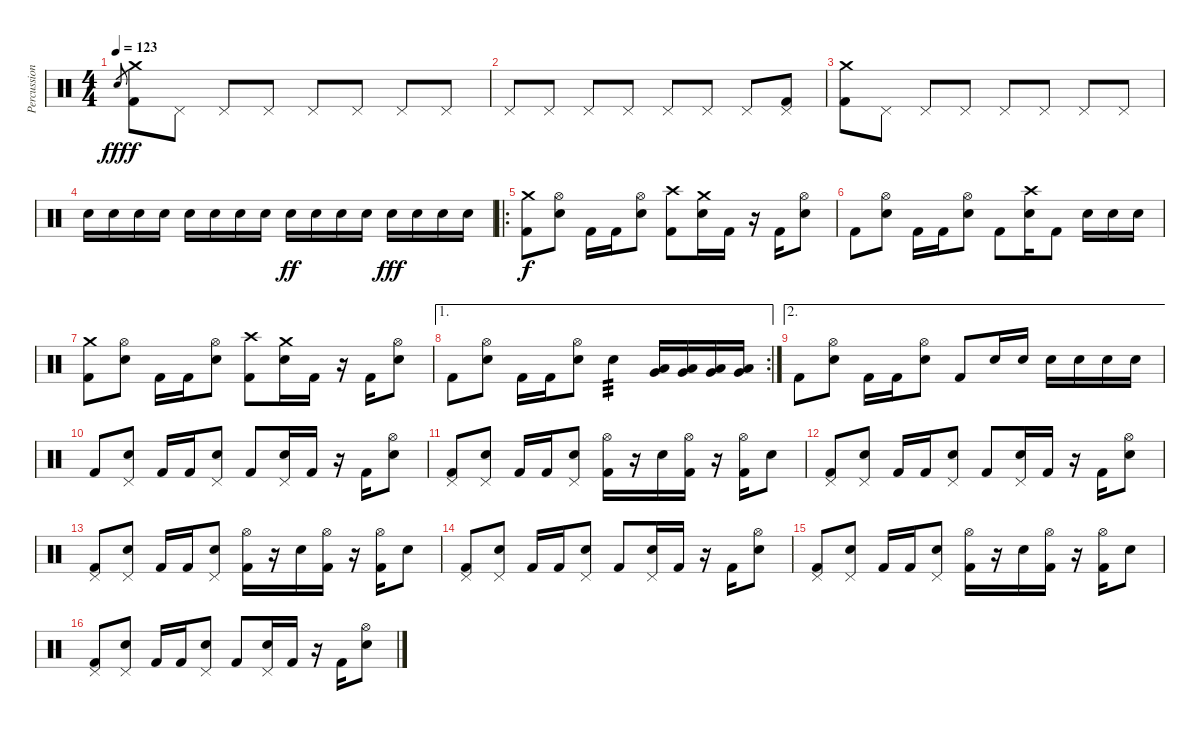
\track ("Percussion" "Percussion") {instrument percussion}
\staff {score}
\articulation defaults
\ts (4 4)
\tempo 123
\clef neutral
\ks c "Electric Snare (hit)".8{gr dy fff}
("Crash medium (hit)" "Kick (hit) 2").8{dy f} "Pedal Hi-Hat (hit)".8 "Pedal Hi-Hat (hit)".8 "Pedal Hi-Hat (hit)".8 "Pedal Hi-Hat (hit)".8 "Pedal Hi-Hat (hit)".8 "Pedal Hi-Hat (hit)".8 "Pedal Hi-Hat (hit)".8 |
"Pedal Hi-Hat (hit)".8 "Pedal Hi-Hat (hit)".8 "Pedal Hi-Hat (hit)".8 "Pedal Hi-Hat (hit)".8 "Pedal Hi-Hat (hit)".8 "Pedal Hi-Hat (hit)".8 "Pedal Hi-Hat (hit)".8 ("Pedal Hi-Hat (hit)" "Kick (hit) 2").8 |
("Crash medium (hit)" "Kick (hit) 2").8 "Pedal Hi-Hat (hit)".8 "Pedal Hi-Hat (hit)".8 "Pedal Hi-Hat (hit)".8 "Pedal Hi-Hat (hit)".8 "Pedal Hi-Hat (hit)".8 "Pedal Hi-Hat (hit)".8 "Pedal Hi-Hat (hit)".8 |
"Electric Snare (hit)".16 "Electric Snare (hit)".16 "Electric Snare (hit)".16 "Electric Snare (hit)".16 "Electric Snare (hit)".16 "Electric Snare (hit)".16 "Electric Snare (hit)".16 "Electric Snare (hit)".16 "Electric Snare (hit)".16{dy ff} "Electric Snare (hit)".16 "Electric Snare (hit)".16 "Electric Snare (hit)".16 "Electric Snare (hit)".16{dy fff} "Electric Snare (hit)".16 "Electric Snare (hit)".16 "Electric Snare (hit)".16 |
\ro
("Crash medium (hit)" "Kick (hit) 2").8{dy f} ("Hi-Hat (open)" "Electric Snare (hit)").8 "Kick (hit) 2".16 "Kick (hit) 2".16 ("Hi-Hat (open)" "Electric Snare (hit)").8 ("Crash high (hit)" "Kick (hit) 2").8 ("Crash medium (hit)" "Electric Snare (hit)").16 "Kick (hit) 2".16 r.16 "Kick (hit) 2".16 ("Hi-Hat (open)" "Electric Snare (hit)").8 |
"Kick (hit) 2".8 ("Hi-Hat (open)" "Electric Snare (hit)").8 "Kick (hit) 2".16 "Kick (hit) 2".16 ("Hi-Hat (open)" "Electric Snare (hit)").8 "Kick (hit) 2".8 ("Crash high (hit)" "Electric Snare (hit)").16 "Kick (hit) 2".8 "Electric Snare (hit)".16 "Electric Snare (hit)".16 "Electric Snare (hit)".16 |
("Crash medium (hit)" "Kick (hit) 2").8 ("Hi-Hat (open)" "Electric Snare (hit)").8 "Kick (hit) 2".16 "Kick (hit) 2".16 ("Hi-Hat (open)" "Electric Snare (hit)").8 ("Crash high (hit)" "Kick (hit) 2").8 ("Crash medium (hit)" "Electric Snare (hit)").16 "Kick (hit) 2".16 r.16 "Kick (hit) 2".16 ("Hi-Hat (open)" "Electric Snare (hit)").8 |
\ae 1
\rc 2 "Kick (hit) 2".8
("Hi-Hat (open)" "Electric Snare (hit)").8 "Kick (hit) 2".16 "Kick (hit) 2".16 ("Hi-Hat (open)" "Electric Snare (hit)").8 "Electric Snare (hit)".4{tp 3} ("Very Low Tom (hit)" "Low Floor Tom (hit)").16 ("Very Low Tom (hit)" "Low Floor Tom (hit)").16 ("Very Low Tom (hit)" "Low Floor Tom (hit)").16 ("Very Low Tom (hit)" "Low Floor Tom (hit)").16 |
\ae 2 "Kick (hit) 2".8
("Hi-Hat (open)" "Electric Snare (hit)").8 "Kick (hit) 2".16 "Kick (hit) 2".16 ("Hi-Hat (open)" "Electric Snare (hit)").8 "Kick (hit) 2".8 "Electric Snare (hit)".16 "Electric Snare (hit)".16 "Electric Snare (hit)".16 "Electric Snare (hit)".16 "Electric Snare (hit)".16 "Electric Snare (hit)".16 |
"Kick (hit) 2".8 ("Pedal Hi-Hat (hit)" "Electric Snare (hit)").8 "Kick (hit) 2".16 "Kick (hit) 2".16 ("Pedal Hi-Hat (hit)" "Electric Snare (hit)").8 "Kick (hit) 2".8 ("Pedal Hi-Hat (hit)" "Electric Snare (hit)").16 "Kick (hit) 2".16 r.16 "Kick (hit) 2".16 ("Hi-Hat (open)" "Electric Snare (hit)").8 |
("Pedal Hi-Hat (hit)" "Kick (hit) 2").8 ("Pedal Hi-Hat (hit)" "Electric Snare (hit)").8 "Kick (hit) 2".16 "Kick (hit) 2".16 ("Pedal Hi-Hat (hit)" "Electric Snare (hit)").8 ("Hi-Hat (open)" "Kick (hit) 2").16 r.16 "Electric Snare (hit)".16 ("Hi-Hat (open)" "Kick (hit) 2").16 r.16 ("Hi-Hat (open)" "Kick (hit) 2").16 "Electric Snare (hit)".8 |
("Pedal Hi-Hat (hit)" "Kick (hit) 2").8 ("Pedal Hi-Hat (hit)" "Electric Snare (hit)").8 "Kick (hit) 2".16 "Kick (hit) 2".16 ("Pedal Hi-Hat (hit)" "Electric Snare (hit)").8 "Kick (hit) 2".8 ("Pedal Hi-Hat (hit)" "Electric Snare (hit)").16 "Kick (hit) 2".16 r.16 "Kick (hit) 2".16 ("Hi-Hat (open)" "Electric Snare (hit)").8 |
("Pedal Hi-Hat (hit)" "Kick (hit) 2").8 ("Pedal Hi-Hat (hit)" "Electric Snare (hit)").8 "Kick (hit) 2".16 "Kick (hit) 2".16 ("Pedal Hi-Hat (hit)" "Electric Snare (hit)").8 ("Hi-Hat (open)" "Kick (hit) 2").16 r.16 "Electric Snare (hit)".16 ("Hi-Hat (open)" "Kick (hit) 2").16 r.16 ("Hi-Hat (open)" "Kick (hit) 2").16 "Electric Snare (hit)".8 |
("Pedal Hi-Hat (hit)" "Kick (hit) 2").8 ("Pedal Hi-Hat (hit)" "Electric Snare (hit)").8 "Kick (hit) 2".16 "Kick (hit) 2".16 ("Pedal Hi-Hat (hit)" "Electric Snare (hit)").8 "Kick (hit) 2".8 ("Pedal Hi-Hat (hit)" "Electric Snare (hit)").16 "Kick (hit) 2".16 r.16 "Kick (hit) 2".16 ("Hi-Hat (open)" "Electric Snare (hit)").8 |
("Pedal Hi-Hat (hit)" "Kick (hit) 2").8 ("Pedal Hi-Hat (hit)" "Electric Snare (hit)").8 "Kick (hit) 2".16 "Kick (hit) 2".16 ("Pedal Hi-Hat (hit)" "Electric Snare (hit)").8 ("Hi-Hat (open)" "Kick (hit) 2").16 r.16 "Electric Snare (hit)".16 ("Hi-Hat (open)" "Kick (hit) 2").16 r.16 ("Hi-Hat (open)" "Kick (hit) 2").16 "Electric Snare (hit)".8 |
("Pedal Hi-Hat (hit)" "Kick (hit) 2").8 ("Pedal Hi-Hat (hit)" "Electric Snare (hit)").8 "Kick (hit) 2".16 "Kick (hit) 2".16 ("Pedal Hi-Hat (hit)" "Electric Snare (hit)").8 "Kick (hit) 2".8 ("Pedal Hi-Hat (hit)" "Electric Snare (hit)").16 "Kick (hit) 2".16 r.16 "Kick (hit) 2".16 ("Hi-Hat (open)" "Electric Snare (hit)").8
